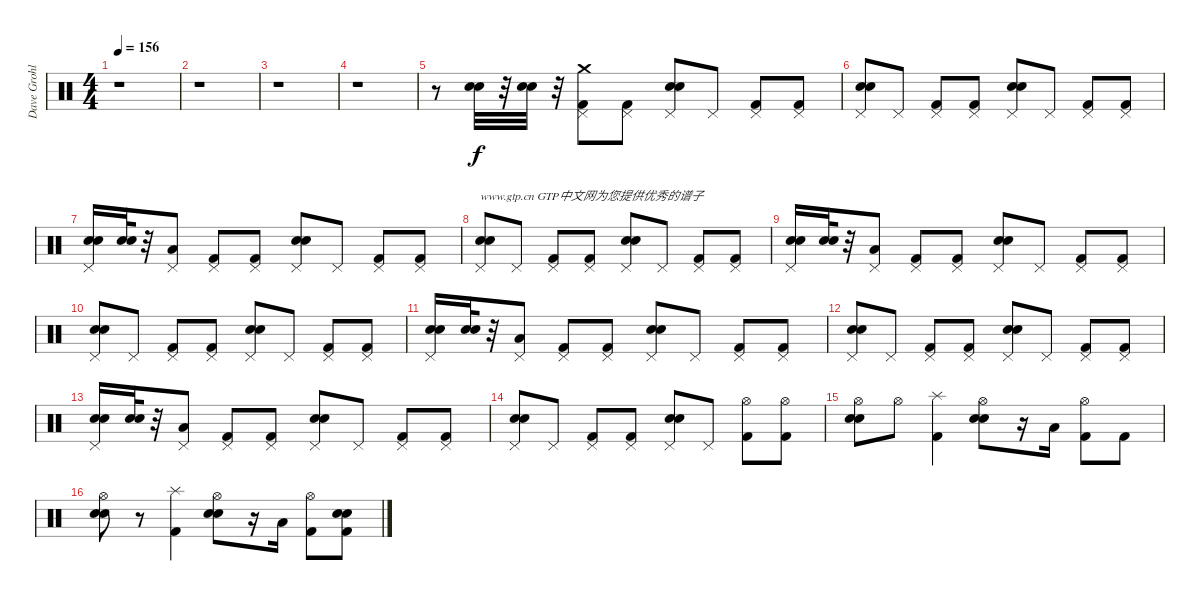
\track ("Dave Grohl" "Dave Grohl") {instrument percussion}
\staff {score}
\articulation defaults
\ts (4 4)
\tempo 156
\clef neutral
\ks c
r.1{dy f} |
r.1 |
r.1 |
r.1 |
r.8 ("Snare (hit) 2" "Electric Snare (hit)").32 r.32 ("Snare (hit) 2" "Electric Snare (hit)").32 r.32 ("Crash medium (hit)" "Kick (hit) 2" "Pedal Hi-Hat (hit)").8 ("Kick (hit) 2" "Pedal Hi-Hat (hit)").8 ("Snare (hit) 2" "Electric Snare (hit)" "Pedal Hi-Hat (hit)").8 "Pedal Hi-Hat (hit)".8 ("Kick (hit) 2" "Pedal Hi-Hat (hit)").8 ("Kick (hit) 2" "Pedal Hi-Hat (hit)").8 |
("Snare (hit) 2" "Electric Snare (hit)" "Pedal Hi-Hat (hit)").8 "Pedal Hi-Hat (hit)".8 ("Kick (hit) 2" "Pedal Hi-Hat (hit)").8 ("Kick (hit) 2" "Pedal Hi-Hat (hit)").8 ("Snare (hit) 2" "Electric Snare (hit)" "Pedal Hi-Hat (hit)").8 "Pedal Hi-Hat (hit)".8 ("Kick (hit) 2" "Pedal Hi-Hat (hit)").8 ("Kick (hit) 2" "Pedal Hi-Hat (hit)").8 |
("Snare (hit) 2" "Electric Snare (hit)" "Pedal Hi-Hat (hit)").16 ("Snare (hit) 2" "Electric Snare (hit)").32 r.32 ("Low Floor Tom (hit)" "Pedal Hi-Hat (hit)").8 ("Kick (hit) 2" "Pedal Hi-Hat (hit)").8 ("Kick (hit) 2" "Pedal Hi-Hat (hit)").8 ("Snare (hit) 2" "Electric Snare (hit)" "Pedal Hi-Hat (hit)").8 "Pedal Hi-Hat (hit)".8 ("Kick (hit) 2" "Pedal Hi-Hat (hit)").8 ("Kick (hit) 2" "Pedal Hi-Hat (hit)").8 |
("Snare (hit) 2" "Electric Snare (hit)" "Pedal Hi-Hat (hit)").8{txt "www.gtp.cn GTP中文网为您提供优秀的谱子"} "Pedal Hi-Hat (hit)".8 ("Kick (hit) 2" "Pedal Hi-Hat (hit)").8 ("Kick (hit) 2" "Pedal Hi-Hat (hit)").8 ("Snare (hit) 2" "Electric Snare (hit)" "Pedal Hi-Hat (hit)").8 "Pedal Hi-Hat (hit)".8 ("Kick (hit) 2" "Pedal Hi-Hat (hit)").8 ("Kick (hit) 2" "Pedal Hi-Hat (hit)").8 |
("Snare (hit) 2" "Electric Snare (hit)" "Pedal Hi-Hat (hit)").16 ("Snare (hit) 2" "Electric Snare (hit)").32 r.32 ("Low Floor Tom (hit)" "Pedal Hi-Hat (hit)").8 ("Kick (hit) 2" "Pedal Hi-Hat (hit)").8 ("Kick (hit) 2" "Pedal Hi-Hat (hit)").8 ("Snare (hit) 2" "Electric Snare (hit)" "Pedal Hi-Hat (hit)").8 "Pedal Hi-Hat (hit)".8 ("Kick (hit) 2" "Pedal Hi-Hat (hit)").8 ("Kick (hit) 2" "Pedal Hi-Hat (hit)").8 |
("Snare (hit) 2" "Electric Snare (hit)" "Pedal Hi-Hat (hit)").8 "Pedal Hi-Hat (hit)".8 ("Kick (hit) 2" "Pedal Hi-Hat (hit)").8 ("Kick (hit) 2" "Pedal Hi-Hat (hit)").8 ("Snare (hit) 2" "Electric Snare (hit)" "Pedal Hi-Hat (hit)").8 "Pedal Hi-Hat (hit)".8 ("Kick (hit) 2" "Pedal Hi-Hat (hit)").8 ("Kick (hit) 2" "Pedal Hi-Hat (hit)").8 |
("Snare (hit) 2" "Electric Snare (hit)" "Pedal Hi-Hat (hit)").16 ("Snare (hit) 2" "Electric Snare (hit)").32 r.32 ("Low Floor Tom (hit)" "Pedal Hi-Hat (hit)").8 ("Kick (hit) 2" "Pedal Hi-Hat (hit)").8 ("Kick (hit) 2" "Pedal Hi-Hat (hit)").8 ("Snare (hit) 2" "Electric Snare (hit)" "Pedal Hi-Hat (hit)").8 "Pedal Hi-Hat (hit)".8 ("Kick (hit) 2" "Pedal Hi-Hat (hit)").8 ("Kick (hit) 2" "Pedal Hi-Hat (hit)").8 |
("Snare (hit) 2" "Electric Snare (hit)" "Pedal Hi-Hat (hit)").8 "Pedal Hi-Hat (hit)".8 ("Kick (hit) 2" "Pedal Hi-Hat (hit)").8 ("Kick (hit) 2" "Pedal Hi-Hat (hit)").8 ("Snare (hit) 2" "Electric Snare (hit)" "Pedal Hi-Hat (hit)").8 "Pedal Hi-Hat (hit)".8 ("Kick (hit) 2" "Pedal Hi-Hat (hit)").8 ("Kick (hit) 2" "Pedal Hi-Hat (hit)").8 |
("Snare (hit) 2" "Electric Snare (hit)" "Pedal Hi-Hat (hit)").16 ("Snare (hit) 2" "Electric Snare (hit)").32 r.32 ("Low Floor Tom (hit)" "Pedal Hi-Hat (hit)").8 ("Kick (hit) 2" "Pedal Hi-Hat (hit)").8 ("Kick (hit) 2" "Pedal Hi-Hat (hit)").8 ("Snare (hit) 2" "Electric Snare (hit)" "Pedal Hi-Hat (hit)").8 "Pedal Hi-Hat (hit)".8 ("Kick (hit) 2" "Pedal Hi-Hat (hit)").8 ("Kick (hit) 2" "Pedal Hi-Hat (hit)").8 |
("Snare (hit) 2" "Electric Snare (hit)" "Pedal Hi-Hat (hit)").8 "Pedal Hi-Hat (hit)".8 ("Kick (hit) 2" "Pedal Hi-Hat (hit)").8 ("Kick (hit) 2" "Pedal Hi-Hat (hit)").8 ("Snare (hit) 2" "Electric Snare (hit)" "Pedal Hi-Hat (hit)").8 "Pedal Hi-Hat (hit)".8 ("Kick (hit) 2" "Hi-Hat (open)").8 ("Kick (hit) 2" "Hi-Hat (open)").8 |
("Hi-Hat (open)" "Snare (hit) 2" "Electric Snare (hit)").8 "Hi-Hat (open)".8 ("Kick (hit) 2" "Splash (hit)").4 ("Electric Snare (hit)" "Snare (hit) 2" "Hi-Hat (open)").8 r.16 "Low Floor Tom (hit)".16 ("Kick (hit) 2" "Hi-Hat (open)").8 "Kick (hit) 2".8 |
("Snare (hit) 2" "Electric Snare (hit)" "Hi-Hat (open)").8 r.8 ("Kick (hit) 2" "Splash (hit)").4 ("Electric Snare (hit)" "Snare (hit) 2" "Hi-Hat (open)").8 r.16 "Low Floor Tom (hit)".16 ("Hi-Hat (open)" "Kick (hit) 2").8 ("Snare (hit) 2" "Electric Snare (hit)" "Kick (hit) 2").8
